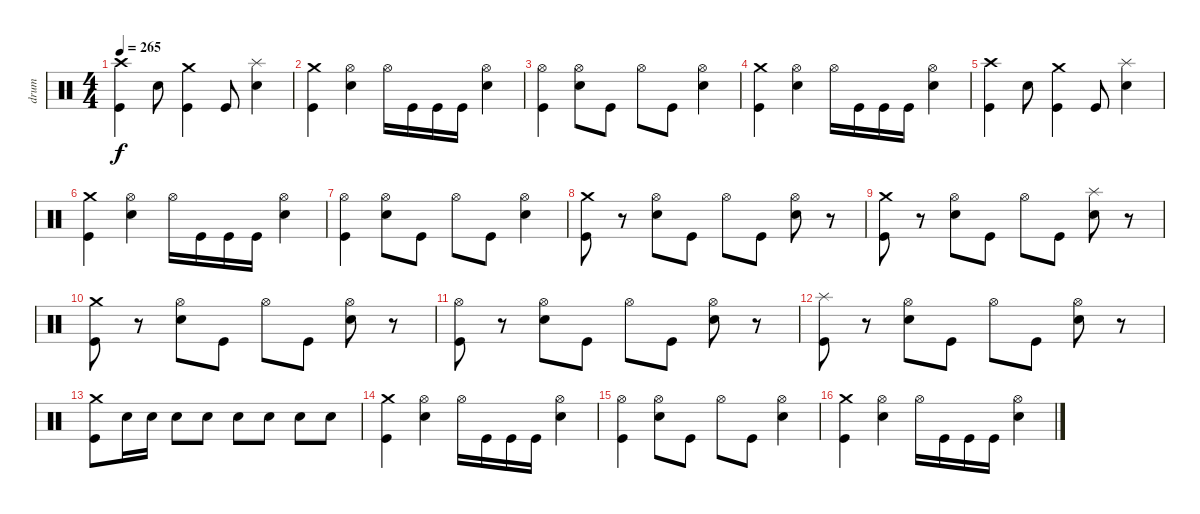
\track ("drum" "drum") {instrument percussion}
\staff {score}
\articulation defaults
\ts (4 4)
\tempo 265
\clef neutral
\ks c
("Kick (hit)" "Crash high (hit)").4{dy f} "Electric Snare (hit)".8 ("Kick (hit)" "Crash medium (hit)").4 "Kick (hit)".8 ("Electric Snare (hit)" "Splash (hit)").4 |
("Kick (hit)" "Crash medium (hit)").4 ("Electric Snare (hit)" "Hi-Hat (open)").4 "Hi-Hat (open)".16 "Kick (hit)".16 "Kick (hit)".16 "Kick (hit)".16 ("Electric Snare (hit)" "Hi-Hat (open)").4 |
("Kick (hit)" "Hi-Hat (open)").4 ("Electric Snare (hit)" "Hi-Hat (open)").8 "Kick (hit)".8 "Hi-Hat (open)".8 "Kick (hit)".8 ("Electric Snare (hit)" "Hi-Hat (open)").4 |
("Kick (hit)" "Crash medium (hit)").4 ("Electric Snare (hit)" "Hi-Hat (open)").4 "Hi-Hat (open)".16 "Kick (hit)".16 "Kick (hit)".16 "Kick (hit)".16 ("Electric Snare (hit)" "Hi-Hat (open)").4 |
("Kick (hit)" "Crash high (hit)").4 "Electric Snare (hit)".8 ("Kick (hit)" "Crash medium (hit)").4 "Kick (hit)".8 ("Electric Snare (hit)" "Splash (hit)").4 |
("Kick (hit)" "Crash medium (hit)").4 ("Electric Snare (hit)" "Hi-Hat (open)").4 "Hi-Hat (open)".16 "Kick (hit)".16 "Kick (hit)".16 "Kick (hit)".16 ("Electric Snare (hit)" "Hi-Hat (open)").4 |
("Kick (hit)" "Hi-Hat (open)").4 ("Electric Snare (hit)" "Hi-Hat (open)").8 "Kick (hit)".8 "Hi-Hat (open)".8 "Kick (hit)".8 ("Electric Snare (hit)" "Hi-Hat (open)").4 |
("Kick (hit)" "Crash medium (hit)").8 r.8 ("Electric Snare (hit)" "Hi-Hat (open)").8 "Kick (hit)".8 "Hi-Hat (open)".8 "Kick (hit)".8 ("Electric Snare (hit)" "Hi-Hat (open)").8 r.8 |
("Kick (hit)" "Crash medium (hit)").8 r.8 ("Electric Snare (hit)" "Hi-Hat (open)").8 "Kick (hit)".8 "Hi-Hat (open)".8 "Kick (hit)".8 ("Electric Snare (hit)" "Splash (hit)").8 r.8 |
("Kick (hit)" "Crash medium (hit)").8 r.8 ("Electric Snare (hit)" "Hi-Hat (open)").8 "Kick (hit)".8 "Hi-Hat (open)".8 "Kick (hit)".8 ("Electric Snare (hit)" "Hi-Hat (open)").8 r.8 |
("Kick (hit)" "Hi-Hat (open)").8 r.8 ("Electric Snare (hit)" "Hi-Hat (open)").8 "Kick (hit)".8 "Hi-Hat (open)".8 "Kick (hit)".8 ("Electric Snare (hit)" "Hi-Hat (open)").8 r.8 |
("Kick (hit)" "Splash (hit)").8 r.8 ("Electric Snare (hit)" "Hi-Hat (open)").8 "Kick (hit)".8 "Hi-Hat (open)".8 "Kick (hit)".8 ("Electric Snare (hit)" "Hi-Hat (open)").8 r.8 |
("Kick (hit)" "Crash medium (hit)").8 "Electric Snare (hit)".16 "Electric Snare (hit)".16 "Electric Snare (hit)".8 "Electric Snare (hit)".8 "Electric Snare (hit)".8 "Electric Snare (hit)".8 "Electric Snare (hit)".8 "Electric Snare (hit)".8 |
("Kick (hit)" "Crash medium (hit)").4 ("Electric Snare (hit)" "Hi-Hat (open)").4 "Hi-Hat (open)".16 "Kick (hit)".16 "Kick (hit)".16 "Kick (hit)".16 ("Electric Snare (hit)" "Hi-Hat (open)").4 |
("Kick (hit)" "Hi-Hat (open)").4 ("Electric Snare (hit)" "Hi-Hat (open)").8 "Kick (hit)".8 "Hi-Hat (open)".8 "Kick (hit)".8 ("Electric Snare (hit)" "Hi-Hat (open)").4 |
("Kick (hit)" "Crash medium (hit)").4 ("Electric Snare (hit)" "Hi-Hat (open)").4 "Hi-Hat (open)".16 "Kick (hit)".16 "Kick (hit)".16 "Kick (hit)".16 ("Electric Snare (hit)" "Hi-Hat (open)").4
